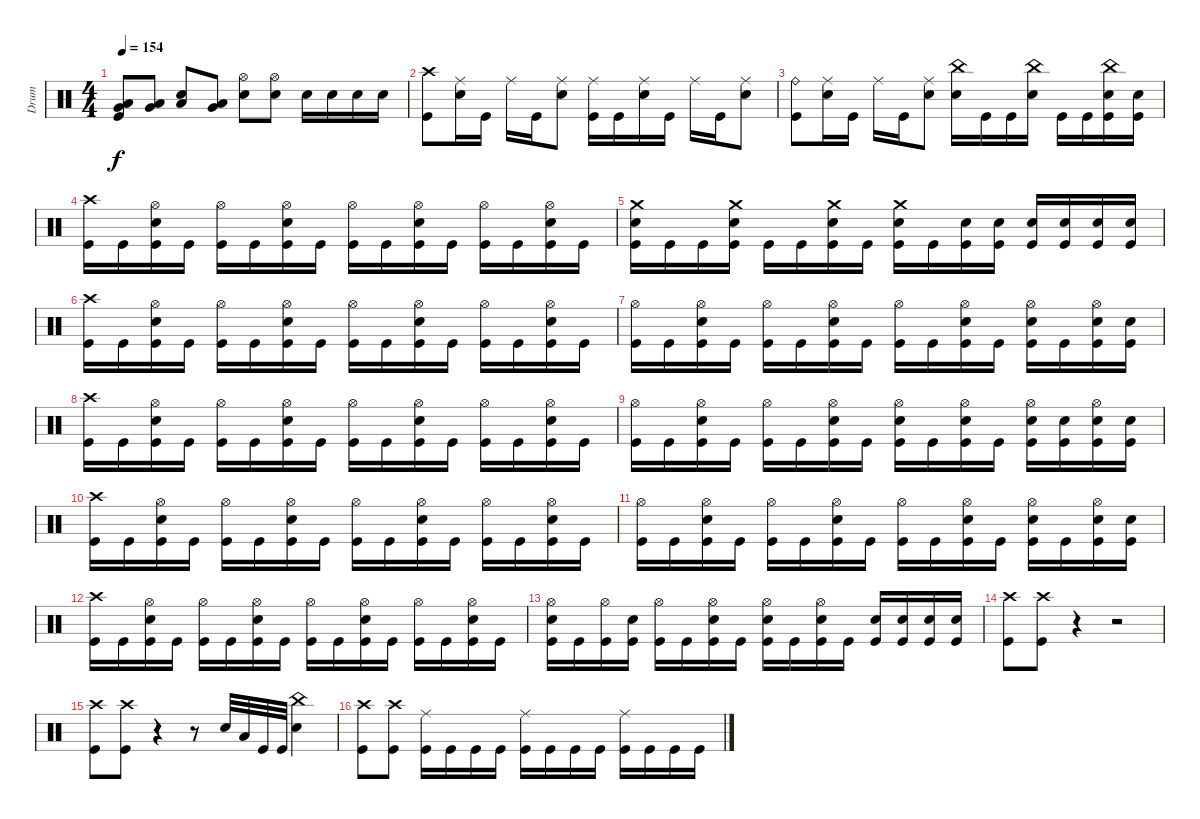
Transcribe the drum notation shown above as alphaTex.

\track ("Drum" "Drum") {instrument percussion}
\staff {score}
\articulation defaults
\ts (4 4)
\tempo 154
\clef neutral
\ks c
("Kick (hit)" "Very Low Tom (hit)" "Low Tom (hit)").8{dy f} ("Very Low Tom (hit)" "Low Tom (hit)").8 ("Electric Snare (hit)" "Low Floor Tom (hit)").8 ("Very Low Tom (hit)" "Low Tom (hit)").8 ("Electric Snare (hit)" "Hi-Hat (open)").8 ("Electric Snare (hit)" "Hi-Hat (open)").8 "Electric Snare (hit)".16 "Electric Snare (hit)".16 "Electric Snare (hit)".16 "Electric Snare (hit)".16 |
("Kick (hit)" "Crash high (hit)").8 ("Electric Snare (hit)" "Ride (middle)").16 "Kick (hit)".16 "Ride (middle)".16 "Kick (hit)".16 ("Electric Snare (hit)" "Ride (middle)").8 ("Kick (hit)" "Ride (middle)").16 "Kick (hit)".16 ("Electric Snare (hit)" "Ride (middle)").16 "Kick (hit)".16 "Ride (middle)".16 "Kick (hit)".16 ("Electric Snare (hit)" "Ride (middle)").8 |
("Kick (hit)" "Ride (bell)").8 ("Electric Snare (hit)" "Ride (middle)").16 "Kick (hit)".16 "Ride (middle)".16 "Kick (hit)".16 ("Electric Snare (hit)" "Ride (middle)").8 ("Electric Snare (hit)" "China (hit)").16 "Kick (hit)".16 "Kick (hit)".16 ("Electric Snare (hit)" "China (hit)").16 "Kick (hit)".16 "Kick (hit)".16 ("Kick (hit)" "Electric Snare (hit)" "China (hit)").16 ("Kick (hit)" "Electric Snare (hit)").16 |
("Kick (hit)" "Crash high (hit)").16 "Kick (hit)".16 ("Kick (hit)" "Electric Snare (hit)" "Hi-Hat (open)").16 "Kick (hit)".16 ("Kick (hit)" "Hi-Hat (open)").16 "Kick (hit)".16 ("Kick (hit)" "Electric Snare (hit)" "Hi-Hat (open)").16 "Kick (hit)".16 ("Kick (hit)" "Hi-Hat (open)").16 "Kick (hit)".16 ("Kick (hit)" "Electric Snare (hit)" "Hi-Hat (open)").16 "Kick (hit)".16 ("Kick (hit)" "Hi-Hat (open)").16 "Kick (hit)".16 ("Kick (hit)" "Electric Snare (hit)" "Hi-Hat (open)").16 "Kick (hit)".16 |
("Kick (hit)" "Electric Snare (hit)" "Crash medium (hit)").16 "Kick (hit)".16 "Kick (hit)".16 ("Kick (hit)" "Electric Snare (hit)" "Crash medium (hit)").16 "Kick (hit)".16 "Kick (hit)".16 ("Kick (hit)" "Electric Snare (hit)" "Crash medium (hit)").16 "Kick (hit)".16 ("Kick (hit)" "Electric Snare (hit)" "Crash medium (hit)").16 "Kick (hit)".16 ("Kick (hit)" "Electric Snare (hit)").16 ("Kick (hit)" "Electric Snare (hit)").16 ("Kick (hit)" "Electric Snare (hit)").16 ("Kick (hit)" "Electric Snare (hit)").16 ("Kick (hit)" "Electric Snare (hit)").16 ("Kick (hit)" "Electric Snare (hit)").16 |
("Kick (hit)" "Crash high (hit)").16 "Kick (hit)".16 ("Kick (hit)" "Electric Snare (hit)" "Hi-Hat (open)").16 "Kick (hit)".16 ("Kick (hit)" "Hi-Hat (open)").16 "Kick (hit)".16 ("Kick (hit)" "Electric Snare (hit)" "Hi-Hat (open)").16 "Kick (hit)".16 ("Kick (hit)" "Hi-Hat (open)").16 "Kick (hit)".16 ("Kick (hit)" "Electric Snare (hit)" "Hi-Hat (open)").16 "Kick (hit)".16 ("Kick (hit)" "Hi-Hat (open)").16 "Kick (hit)".16 ("Kick (hit)" "Electric Snare (hit)" "Hi-Hat (open)").16 "Kick (hit)".16 |
("Kick (hit)" "Hi-Hat (open)").16 "Kick (hit)".16 ("Kick (hit)" "Electric Snare (hit)" "Hi-Hat (open)").16 "Kick (hit)".16 ("Kick (hit)" "Hi-Hat (open)").16 "Kick (hit)".16 ("Kick (hit)" "Electric Snare (hit)" "Hi-Hat (open)").16 "Kick (hit)".16 ("Kick (hit)" "Hi-Hat (open)").16 "Kick (hit)".16 ("Kick (hit)" "Electric Snare (hit)" "Hi-Hat (open)").16 "Kick (hit)".16 ("Kick (hit)" "Electric Snare (hit)" "Hi-Hat (open)").16 "Kick (hit)".16 ("Kick (hit)" "Electric Snare (hit)" "Hi-Hat (open)").16 ("Kick (hit)" "Electric Snare (hit)").16 |
("Kick (hit)" "Crash high (hit)").16 "Kick (hit)".16 ("Kick (hit)" "Electric Snare (hit)" "Hi-Hat (open)").16 "Kick (hit)".16 ("Kick (hit)" "Hi-Hat (open)").16 "Kick (hit)".16 ("Kick (hit)" "Electric Snare (hit)" "Hi-Hat (open)").16 "Kick (hit)".16 ("Kick (hit)" "Hi-Hat (open)").16 "Kick (hit)".16 ("Kick (hit)" "Electric Snare (hit)" "Hi-Hat (open)").16 "Kick (hit)".16 ("Kick (hit)" "Hi-Hat (open)").16 "Kick (hit)".16 ("Kick (hit)" "Electric Snare (hit)" "Hi-Hat (open)").16 "Kick (hit)".16 |
("Kick (hit)" "Hi-Hat (open)").16 "Kick (hit)".16 ("Kick (hit)" "Electric Snare (hit)" "Hi-Hat (open)").16 "Kick (hit)".16 ("Kick (hit)" "Hi-Hat (open)").16 "Kick (hit)".16 ("Kick (hit)" "Electric Snare (hit)" "Hi-Hat (open)").16 "Kick (hit)".16 ("Kick (hit)" "Electric Snare (hit)" "Hi-Hat (open)").16 "Kick (hit)".16 ("Kick (hit)" "Electric Snare (hit)" "Hi-Hat (open)").16 "Kick (hit)".16 ("Kick (hit)" "Electric Snare (hit)" "Hi-Hat (open)").16 ("Kick (hit)" "Electric Snare (hit)").16 ("Kick (hit)" "Electric Snare (hit)" "Hi-Hat (open)").16 ("Kick (hit)" "Electric Snare (hit)").16 |
("Kick (hit)" "Crash high (hit)").16 "Kick (hit)".16 ("Kick (hit)" "Electric Snare (hit)" "Hi-Hat (open)").16 "Kick (hit)".16 ("Kick (hit)" "Hi-Hat (open)").16 "Kick (hit)".16 ("Kick (hit)" "Electric Snare (hit)" "Hi-Hat (open)").16 "Kick (hit)".16 ("Kick (hit)" "Hi-Hat (open)").16 "Kick (hit)".16 ("Kick (hit)" "Electric Snare (hit)" "Hi-Hat (open)").16 "Kick (hit)".16 ("Kick (hit)" "Hi-Hat (open)").16 "Kick (hit)".16 ("Kick (hit)" "Electric Snare (hit)" "Hi-Hat (open)").16 "Kick (hit)".16 |
("Kick (hit)" "Hi-Hat (open)").16 "Kick (hit)".16 ("Kick (hit)" "Electric Snare (hit)" "Hi-Hat (open)").16 "Kick (hit)".16 ("Kick (hit)" "Hi-Hat (open)").16 "Kick (hit)".16 ("Kick (hit)" "Electric Snare (hit)" "Hi-Hat (open)").16 "Kick (hit)".16 ("Kick (hit)" "Hi-Hat (open)").16 "Kick (hit)".16 ("Kick (hit)" "Electric Snare (hit)" "Hi-Hat (open)").16 "Kick (hit)".16 ("Kick (hit)" "Electric Snare (hit)" "Hi-Hat (open)").16 "Kick (hit)".16 ("Kick (hit)" "Electric Snare (hit)" "Hi-Hat (open)").16 ("Kick (hit)" "Electric Snare (hit)").16 |
("Kick (hit)" "Crash high (hit)").16 "Kick (hit)".16 ("Kick (hit)" "Electric Snare (hit)" "Hi-Hat (open)").16 "Kick (hit)".16 ("Kick (hit)" "Hi-Hat (open)").16 "Kick (hit)".16 ("Kick (hit)" "Electric Snare (hit)" "Hi-Hat (open)").16 "Kick (hit)".16 ("Kick (hit)" "Hi-Hat (open)").16 "Kick (hit)".16 ("Kick (hit)" "Electric Snare (hit)" "Hi-Hat (open)").16 "Kick (hit)".16 ("Kick (hit)" "Hi-Hat (open)").16 "Kick (hit)".16 ("Kick (hit)" "Electric Snare (hit)" "Hi-Hat (open)").16 "Kick (hit)".16 |
("Kick (hit)" "Electric Snare (hit)" "Hi-Hat (open)").16 "Kick (hit)".16 ("Kick (hit)" "Hi-Hat (open)").16 ("Kick (hit)" "Electric Snare (hit)").16 ("Kick (hit)" "Hi-Hat (open)").16 "Kick (hit)".16 ("Kick (hit)" "Electric Snare (hit)" "Hi-Hat (open)").16 "Kick (hit)".16 ("Kick (hit)" "Electric Snare (hit)" "Hi-Hat (open)").16 "Kick (hit)".16 ("Kick (hit)" "Electric Snare (hit)" "Hi-Hat (open)").16 "Kick (hit)".16 ("Kick (hit)" "Electric Snare (hit)").16 ("Kick (hit)" "Electric Snare (hit)").16 ("Kick (hit)" "Electric Snare (hit)").16 ("Kick (hit)" "Electric Snare (hit)").16 |
("Kick (hit)" "Crash high (hit)").8 ("Kick (hit)" "Crash high (hit)").8 r.4 r.2 |
("Kick (hit)" "Crash high (hit)").8 ("Kick (hit)" "Crash high (hit)").8 r.4 r.8 "Electric Snare (hit)".32 "Low Floor Tom (hit)".32 "Kick (hit)".32 "Kick (hit)".32 ("Electric Snare (hit)" "China (hit)").4 |
("Kick (hit)" "Crash high (hit)").8 ("Kick (hit)" "Crash high (hit)").8 ("Kick (hit)" "Ride (middle)").16 "Kick (hit)".16 "Kick (hit)".16 "Kick (hit)".16 ("Kick (hit)" "Ride (middle)").16 "Kick (hit)".16 "Kick (hit)".16 "Kick (hit)".16 ("Kick (hit)" "Ride (middle)").16 "Kick (hit)".16 "Kick (hit)".16 "Kick (hit)".16
